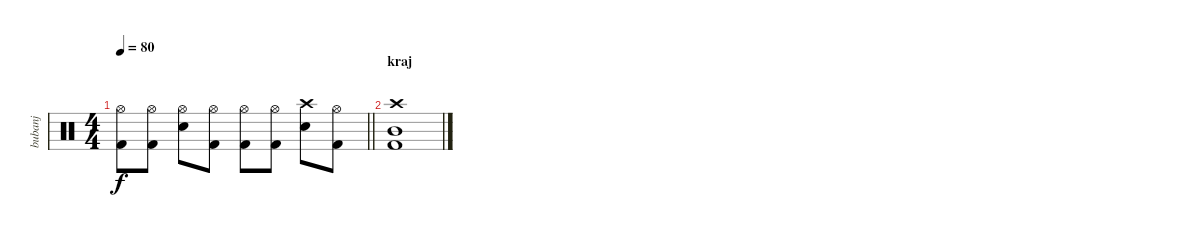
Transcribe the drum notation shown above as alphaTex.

\track ("bubanj" "bubanj") {instrument percussion}
\staff {score}
\articulation defaults
\ts (4 4)
\tempo 80
\clef neutral
\barLineRight lightlight
\ks c
("Hi-Hat (open)" "Kick (hit) 2").8{dy f} ("Hi-Hat (open)" "Kick (hit) 2").8 ("Hi-Hat (open)" "Electric Snare (hit)").8 ("Hi-Hat (open)" "Kick (hit) 2").8 ("Hi-Hat (open)" "Kick (hit) 2").8 ("Hi-Hat (open)" "Kick (hit) 2").8 ("Crash high (hit)" "Electric Snare (hit)").8 ("Hi-Hat (open)" "Kick (hit) 2").8 |
\section ("" "kraj")
("Mid Tom (hit)" "Crash high (hit)" "Kick (hit) 2").1
